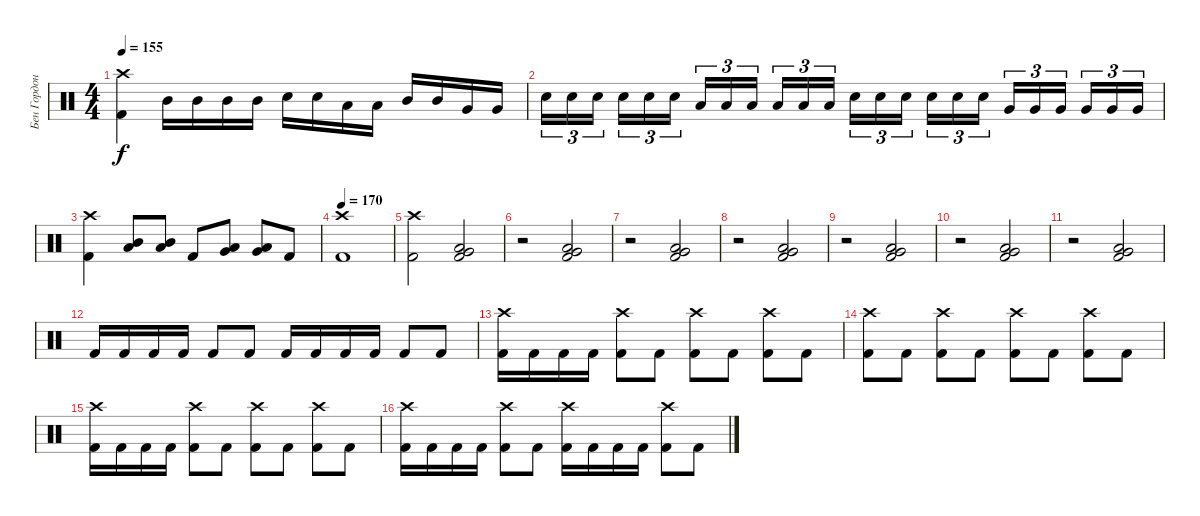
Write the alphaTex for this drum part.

\track ("Бен Гордон" "Бен Гордон") {instrument percussion}
\staff {score}
\articulation defaults
\ts (4 4)
\tempo 155
\clef neutral
\ks c
("Crash high (hit)" "Kick (hit) 2").4{dy f} "Mid Tom (hit)".16 "Mid Tom (hit)".16 "Mid Tom (hit)".16 "Mid Tom (hit)".16 "Electric Snare (hit)".16 "Electric Snare (hit)".16 "Low Tom (hit)".16 "Low Tom (hit)".16 "Mid Tom (hit)".16 "Mid Tom (hit)".16 "Very Low Tom (hit)".16 "Very Low Tom (hit)".16 |
"Electric Snare (hit)".16{tu (3 2)} "Electric Snare (hit)".16{tu (3 2)} "Electric Snare (hit)".16{tu (3 2) beam splitsecondary} "Electric Snare (hit)".16{tu (3 2)} "Electric Snare (hit)".16{tu (3 2)} "Electric Snare (hit)".16{tu (3 2)} "Low Tom (hit)".16{tu (3 2)} "Low Tom (hit)".16{tu (3 2)} "Low Tom (hit)".16{tu (3 2) beam splitsecondary} "Low Tom (hit)".16{tu (3 2)} "Low Tom (hit)".16{tu (3 2)} "Low Tom (hit)".16{tu (3 2)} "Electric Snare (hit)".16{tu (3 2)} "Electric Snare (hit)".16{tu (3 2)} "Electric Snare (hit)".16{tu (3 2) beam splitsecondary} "Electric Snare (hit)".16{tu (3 2)} "Electric Snare (hit)".16{tu (3 2)} "Electric Snare (hit)".16{tu (3 2)} "Very Low Tom (hit)".16{tu (3 2)} "Very Low Tom (hit)".16{tu (3 2)} "Very Low Tom (hit)".16{tu (3 2) beam splitsecondary} "Very Low Tom (hit)".16{tu (3 2)} "Very Low Tom (hit)".16{tu (3 2)} "Very Low Tom (hit)".16{tu (3 2)} |
("Crash high (hit)" "Kick (hit) 2").4 ("Mid Tom (hit)" "Low Tom (hit)").8 ("Mid Tom (hit)" "Low Tom (hit)").8 "Kick (hit) 2".8 ("Low Tom (hit)" "Very Low Tom (hit)").8 ("Low Tom (hit)" "Very Low Tom (hit)").8 "Kick (hit) 2".8 |
\tempo 170
("Crash high (hit)" "Kick (hit) 2").1 |
("Crash high (hit)" "Kick (hit) 2").2 ("Very Low Tom (hit)" "Low Floor Tom (hit)" "Kick (hit) 2").2 |
r.2 ("Very Low Tom (hit)" "Low Floor Tom (hit)" "Kick (hit) 2").2 |
r.2 ("Very Low Tom (hit)" "Low Floor Tom (hit)" "Kick (hit) 2").2 |
r.2 ("Very Low Tom (hit)" "Low Floor Tom (hit)" "Kick (hit) 2").2 |
r.2 ("Very Low Tom (hit)" "Low Floor Tom (hit)" "Kick (hit) 2").2 |
r.2 ("Very Low Tom (hit)" "Low Floor Tom (hit)" "Kick (hit) 2").2 |
r.2 ("Very Low Tom (hit)" "Low Floor Tom (hit)" "Kick (hit) 2").2 |
"Kick (hit) 2".16 "Kick (hit) 2".16 "Kick (hit) 2".16 "Kick (hit) 2".16 "Kick (hit) 2".8 "Kick (hit) 2".8 "Kick (hit) 2".16 "Kick (hit) 2".16 "Kick (hit) 2".16 "Kick (hit) 2".16 "Kick (hit) 2".8 "Kick (hit) 2".8 |
("Crash high (hit)" "Kick (hit) 2").16 "Kick (hit) 2".16 "Kick (hit) 2".16 "Kick (hit) 2".16 ("Crash high (hit)" "Kick (hit) 2").8 "Kick (hit) 2".8 ("Crash high (hit)" "Kick (hit) 2").8 "Kick (hit) 2".8 ("Crash high (hit)" "Kick (hit) 2").8 "Kick (hit) 2".8 |
("Crash high (hit)" "Kick (hit) 2").8 "Kick (hit) 2".8 ("Crash high (hit)" "Kick (hit) 2").8 "Kick (hit) 2".8 ("Crash high (hit)" "Kick (hit) 2").8 "Kick (hit) 2".8 ("Crash high (hit)" "Kick (hit) 2").8 "Kick (hit) 2".8 |
("Crash high (hit)" "Kick (hit) 2").16 "Kick (hit) 2".16 "Kick (hit) 2".16 "Kick (hit) 2".16 ("Crash high (hit)" "Kick (hit) 2").8 "Kick (hit) 2".8 ("Crash high (hit)" "Kick (hit) 2").8 "Kick (hit) 2".8 ("Crash high (hit)" "Kick (hit) 2").8 "Kick (hit) 2".8 |
("Crash high (hit)" "Kick (hit) 2").16 "Kick (hit) 2".16 "Kick (hit) 2".16 "Kick (hit) 2".16 ("Crash high (hit)" "Kick (hit) 2").8 "Kick (hit) 2".8 ("Crash high (hit)" "Kick (hit) 2").16 "Kick (hit) 2".16 "Kick (hit) 2".16 "Kick (hit) 2".16 ("Crash high (hit)" "Kick (hit) 2").8 "Kick (hit) 2".8
